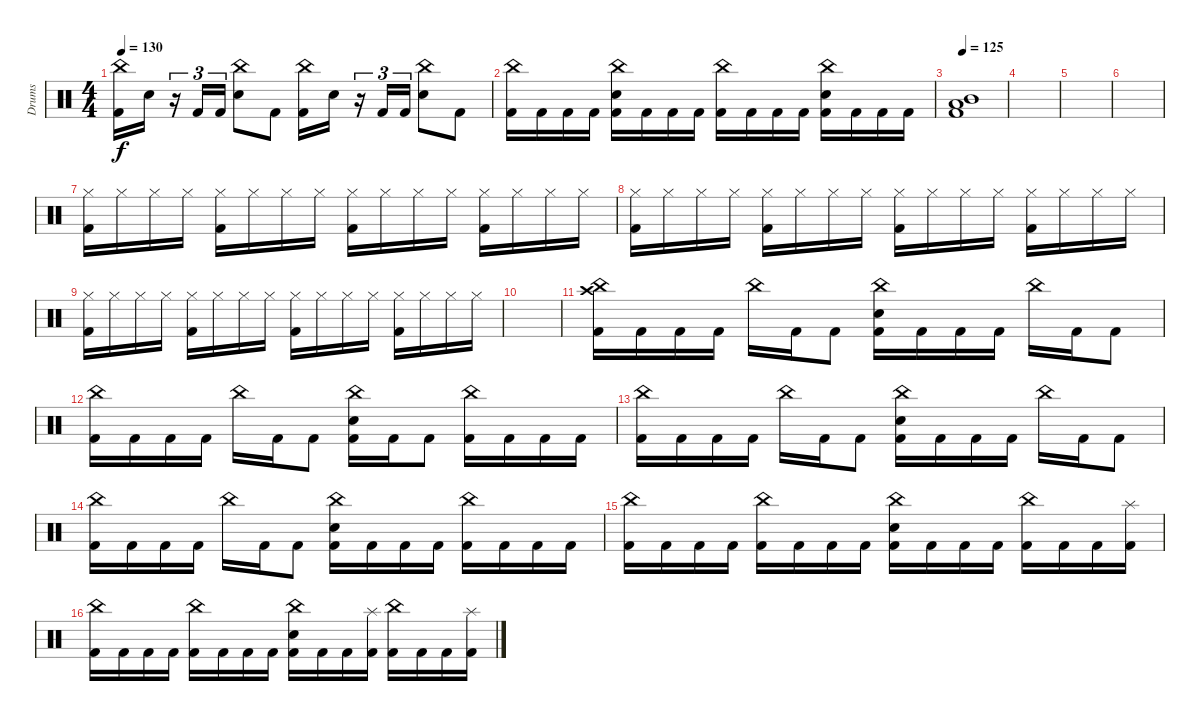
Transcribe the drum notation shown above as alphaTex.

\track ("Drums" "Drums") {instrument percussion}
\staff {score}
\articulation defaults
\ts (4 4)
\tempo 130
\clef neutral
\ks c
("China (hit)" "Kick (hit) 2").16{dy f} "Electric Snare (hit)".16 r.16{tu (3 2)} "Kick (hit) 2".16{tu (3 2)} "Kick (hit) 2".16{tu (3 2)} ("China (hit)" "Electric Snare (hit)").8 "Kick (hit) 2".8 ("China (hit)" "Kick (hit) 2").16 "Electric Snare (hit)".16 r.16{tu (3 2)} "Kick (hit) 2".16{tu (3 2)} "Kick (hit) 2".16{tu (3 2)} ("China (hit)" "Electric Snare (hit)").8 "Kick (hit) 2".8 |
("China (hit)" "Kick (hit) 2").16 "Kick (hit) 2".16 "Kick (hit) 2".16 "Kick (hit) 2".16 ("China (hit)" "Electric Snare (hit)" "Kick (hit) 2").16 "Kick (hit) 2".16 "Kick (hit) 2".16 "Kick (hit) 2".16 ("China (hit)" "Kick (hit) 2").16 "Kick (hit) 2".16 "Kick (hit) 2".16 "Kick (hit) 2".16 ("China (hit)" "Electric Snare (hit)" "Kick (hit) 2").16 "Kick (hit) 2".16 "Kick (hit) 2".16 "Kick (hit) 2".16 |
\tempo 125
("Mid Tom (hit)" "Low Floor Tom (hit)" "Kick (hit) 2").1 |
|
|
|
("Hi-Hat (closed)" "Kick (hit) 2").16 "Hi-Hat (closed)".16 "Hi-Hat (closed)".16 "Hi-Hat (closed)".16 ("Hi-Hat (closed)" "Kick (hit) 2").16 "Hi-Hat (closed)".16 "Hi-Hat (closed)".16 "Hi-Hat (closed)".16 ("Hi-Hat (closed)" "Kick (hit) 2").16 "Hi-Hat (closed)".16 "Hi-Hat (closed)".16 "Hi-Hat (closed)".16 ("Hi-Hat (closed)" "Kick (hit) 2").16 "Hi-Hat (closed)".16 "Hi-Hat (closed)".16 "Hi-Hat (closed)".16 |
("Hi-Hat (closed)" "Kick (hit) 2").16 "Hi-Hat (closed)".16 "Hi-Hat (closed)".16 "Hi-Hat (closed)".16 ("Hi-Hat (closed)" "Kick (hit) 2").16 "Hi-Hat (closed)".16 "Hi-Hat (closed)".16 "Hi-Hat (closed)".16 ("Hi-Hat (closed)" "Kick (hit) 2").16 "Hi-Hat (closed)".16 "Hi-Hat (closed)".16 "Hi-Hat (closed)".16 ("Hi-Hat (closed)" "Kick (hit) 2").16 "Hi-Hat (closed)".16 "Hi-Hat (closed)".16 "Hi-Hat (closed)".16 |
("Hi-Hat (closed)" "Kick (hit) 2").16 "Hi-Hat (closed)".16 "Hi-Hat (closed)".16 "Hi-Hat (closed)".16 ("Hi-Hat (closed)" "Kick (hit) 2").16 "Hi-Hat (closed)".16 "Hi-Hat (closed)".16 "Hi-Hat (closed)".16 ("Hi-Hat (closed)" "Kick (hit) 2").16 "Hi-Hat (closed)".16 "Hi-Hat (closed)".16 "Hi-Hat (closed)".16 ("Hi-Hat (closed)" "Kick (hit) 2").16 "Hi-Hat (closed)".16 "Hi-Hat (closed)".16 "Hi-Hat (closed)".16 |
|
("China (hit)" "Crash high (hit)" "Kick (hit) 2").16 "Kick (hit) 2".16 "Kick (hit) 2".16 "Kick (hit) 2".16 "China (hit)".16 "Kick (hit) 2".16 "Kick (hit) 2".8 ("China (hit)" "Electric Snare (hit)" "Kick (hit) 2").16 "Kick (hit) 2".16 "Kick (hit) 2".16 "Kick (hit) 2".16 "China (hit)".16 "Kick (hit) 2".16 "Kick (hit) 2".8 |
("China (hit)" "Kick (hit) 2").16 "Kick (hit) 2".16 "Kick (hit) 2".16 "Kick (hit) 2".16 "China (hit)".16 "Kick (hit) 2".16 "Kick (hit) 2".8 ("China (hit)" "Electric Snare (hit)" "Kick (hit) 2").16 "Kick (hit) 2".16 "Kick (hit) 2".8 ("China (hit)" "Kick (hit) 2").16 "Kick (hit) 2".16 "Kick (hit) 2".16 "Kick (hit) 2".16 |
("China (hit)" "Kick (hit) 2").16 "Kick (hit) 2".16 "Kick (hit) 2".16 "Kick (hit) 2".16 "China (hit)".16 "Kick (hit) 2".16 "Kick (hit) 2".8 ("China (hit)" "Electric Snare (hit)" "Kick (hit) 2").16 "Kick (hit) 2".16 "Kick (hit) 2".16 "Kick (hit) 2".16 "China (hit)".16 "Kick (hit) 2".16 "Kick (hit) 2".8 |
("China (hit)" "Kick (hit) 2").16 "Kick (hit) 2".16 "Kick (hit) 2".16 "Kick (hit) 2".16 "China (hit)".16 "Kick (hit) 2".16 "Kick (hit) 2".8 ("China (hit)" "Electric Snare (hit)" "Kick (hit) 2").16 "Kick (hit) 2".16 "Kick (hit) 2".16 "Kick (hit) 2".16 ("China (hit)" "Kick (hit) 2").16 "Kick (hit) 2".16 "Kick (hit) 2".16 "Kick (hit) 2".16 |
("China (hit)" "Kick (hit) 2").16 "Kick (hit) 2".16 "Kick (hit) 2".16 "Kick (hit) 2".16 ("China (hit)" "Kick (hit) 2").16 "Kick (hit) 2".16 "Kick (hit) 2".16 "Kick (hit) 2".16 ("China (hit)" "Electric Snare (hit)" "Kick (hit) 2").16 "Kick (hit) 2".16 "Kick (hit) 2".16 "Kick (hit) 2".16 ("China (hit)" "Kick (hit) 2").16 "Kick (hit) 2".16 "Kick (hit) 2".16 ("Splash (hit)" "Kick (hit) 2").16 |
("China (hit)" "Kick (hit) 2").16 "Kick (hit) 2".16 "Kick (hit) 2".16 "Kick (hit) 2".16 ("China (hit)" "Kick (hit) 2").16 "Kick (hit) 2".16 "Kick (hit) 2".16 "Kick (hit) 2".16 ("China (hit)" "Electric Snare (hit)" "Kick (hit) 2").16 "Kick (hit) 2".16 "Kick (hit) 2".16 ("Splash (hit)" "Kick (hit) 2").16 ("China (hit)" "Kick (hit) 2").16 "Kick (hit) 2".16 "Kick (hit) 2".16 ("Splash (hit)" "Kick (hit) 2").16
